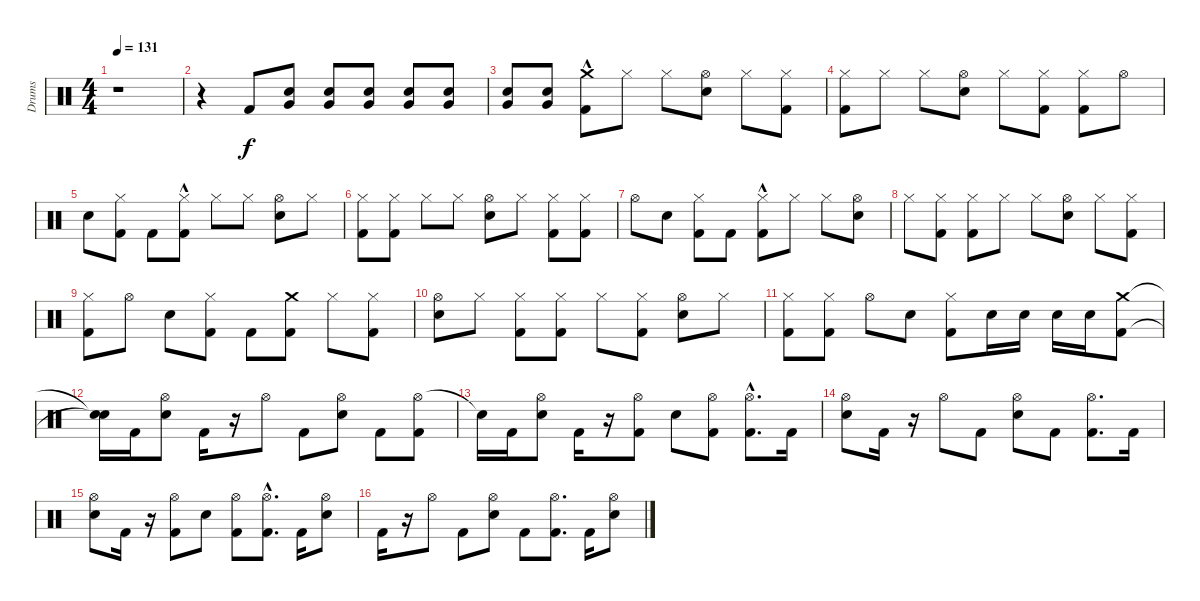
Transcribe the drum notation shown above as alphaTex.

\track ("Drums" "Drums") {instrument percussion}
\staff {score}
\articulation defaults
\ts (4 4)
\tempo 131
\clef neutral
\ks c
r.1{dy f} |
r.4 "Kick (hit) 2".8{volume 6} ("Very Low Tom (hit)" "Electric Snare (hit)").8{volume 7} ("Very Low Tom (hit)" "Electric Snare (hit)").8{volume 9} ("Very Low Tom (hit)" "Electric Snare (hit)").8{volume 10} ("Very Low Tom (hit)" "Electric Snare (hit)").8{volume 11} ("Very Low Tom (hit)" "Electric Snare (hit)").8{volume 12} |
("Very Low Tom (hit)" "Electric Snare (hit)").8{volume 14} ("Very Low Tom (hit)" "Electric Snare (hit)").8{volume 15} ("Crash medium (hit)" "Kick (hit) 2"{hac}).8{volume 16} "Hi-Hat (closed)".8 "Hi-Hat (closed)".8 ("Hi-Hat (open)" "Electric Snare (hit)").8 "Hi-Hat (closed)".8 ("Hi-Hat (closed)" "Kick (hit) 2").8 |
("Hi-Hat (closed)" "Kick (hit) 2").8 "Hi-Hat (closed)".8 "Hi-Hat (closed)".8 ("Hi-Hat (open)" "Electric Snare (hit)").8 "Hi-Hat (closed)".8 ("Hi-Hat (closed)" "Kick (hit) 2").8 ("Hi-Hat (closed)" "Kick (hit) 2").8 "Hi-Hat (open)".8 |
"Electric Snare (hit)".8 ("Hi-Hat (closed)" "Kick (hit) 2").8 "Kick (hit) 2".8 ("Hi-Hat (closed)" "Kick (hit) 2"{hac}).8 "Hi-Hat (closed)".8 "Hi-Hat (closed)".8 ("Hi-Hat (open)" "Electric Snare (hit)").8 "Hi-Hat (closed)".8 |
("Hi-Hat (closed)" "Kick (hit) 2").8 ("Hi-Hat (closed)" "Kick (hit) 2").8 "Hi-Hat (closed)".8 "Hi-Hat (closed)".8 ("Hi-Hat (open)" "Electric Snare (hit)").8 "Hi-Hat (closed)".8 ("Hi-Hat (closed)" "Kick (hit) 2").8 ("Hi-Hat (closed)" "Kick (hit) 2").8 |
"Hi-Hat (open)".8 "Electric Snare (hit)".8 ("Hi-Hat (closed)" "Kick (hit) 2").8 "Kick (hit) 2".8 ("Hi-Hat (closed)" "Kick (hit) 2"{hac}).8 "Hi-Hat (closed)".8 "Hi-Hat (closed)".8 ("Hi-Hat (open)" "Electric Snare (hit)").8 |
"Hi-Hat (closed)".8 ("Hi-Hat (closed)" "Kick (hit) 2").8 ("Hi-Hat (closed)" "Kick (hit) 2").8 "Hi-Hat (closed)".8 "Hi-Hat (closed)".8 ("Hi-Hat (open)" "Electric Snare (hit)").8 "Hi-Hat (closed)".8 ("Hi-Hat (closed)" "Kick (hit) 2").8 |
("Hi-Hat (closed)" "Kick (hit) 2").8 "Hi-Hat (open)".8 "Electric Snare (hit)".8 ("Hi-Hat (closed)" "Kick (hit) 2").8 "Kick (hit) 2".8 ("Crash medium (hit)" "Kick (hit) 2").8 "Hi-Hat (closed)".8 ("Kick (hit) 2" "Hi-Hat (closed)").8 |
("Hi-Hat (open)" "Electric Snare (hit)").8 "Hi-Hat (closed)".8 ("Hi-Hat (closed)" "Kick (hit) 2").8 ("Hi-Hat (closed)" "Kick (hit) 2").8 "Hi-Hat (closed)".8 ("Kick (hit) 2" "Hi-Hat (closed)").8 ("Hi-Hat (open)" "Electric Snare (hit)").8 "Hi-Hat (closed)".8 |
("Hi-Hat (closed)" "Kick (hit) 2").8 ("Hi-Hat (closed)" "Kick (hit) 2").8 "Hi-Hat (open)".8 "Electric Snare (hit)".8 ("Hi-Hat (closed)" "Kick (hit) 2").8 "Electric Snare (hit)".16 "Electric Snare (hit)".16 "Electric Snare (hit)".16 "Electric Snare (hit)".16 ("Crash medium (hit)" "Kick (hit) 2").8 |
("Snare (hit)"{t} "Snare (hit)"{t}).16 "Kick (hit) 2".16 ("Hi-Hat (open)" "Electric Snare (hit)").8 "Kick (hit) 2".16 r.16 "Hi-Hat (open)".8 "Kick (hit) 2".8 ("Hi-Hat (open)" "Electric Snare (hit)").8 "Kick (hit) 2".8 ("Hi-Hat (open)" "Kick (hit) 2").8 |
"Snare (hit)"{t}.16 "Kick (hit) 2".16 ("Electric Snare (hit)" "Hi-Hat (open)").8 "Kick (hit) 2".16 r.16 ("Kick (hit) 2" "Hi-Hat (open)").8 "Electric Snare (hit)".8 ("Kick (hit) 2" "Hi-Hat (open)").8 ("Hi-Hat (open)" "Kick (hit) 2"{hac}).8{d} "Kick (hit) 2".16 |
("Hi-Hat (open)" "Electric Snare (hit)").8 "Kick (hit) 2".16 r.16 "Hi-Hat (open)".8 "Kick (hit) 2".8 ("Hi-Hat (open)" "Electric Snare (hit)").8 "Kick (hit) 2".8 ("Hi-Hat (open)" "Kick (hit) 2").8{d} "Kick (hit) 2".16 |
("Electric Snare (hit)" "Hi-Hat (open)").8 "Kick (hit) 2".16 r.16 ("Kick (hit) 2" "Hi-Hat (open)").8 "Electric Snare (hit)".8 ("Kick (hit) 2" "Hi-Hat (open)").8 ("Hi-Hat (open)" "Kick (hit) 2"{hac}).8{d} "Kick (hit) 2".16 ("Hi-Hat (open)" "Electric Snare (hit)").8 |
"Kick (hit) 2".16 r.16 "Hi-Hat (open)".8 "Kick (hit) 2".8 ("Hi-Hat (open)" "Electric Snare (hit)").8 "Kick (hit) 2".8 ("Hi-Hat (open)" "Kick (hit) 2").8{d} "Kick (hit) 2".16 ("Electric Snare (hit)" "Hi-Hat (open)").8
